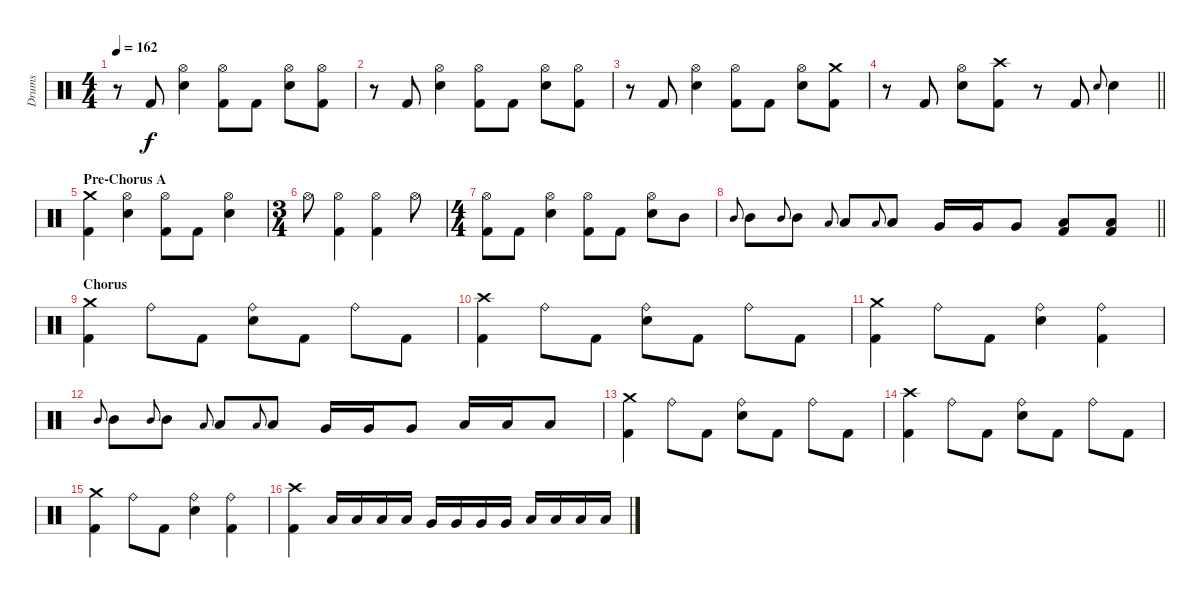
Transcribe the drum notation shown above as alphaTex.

\track ("Drums" "Drums") {instrument percussion}
\staff {score}
\articulation defaults
\ts (4 4)
\tempo 162
\clef neutral
\ks c
r.8{dy f} "Kick (hit) 2".8 ("Hi-Hat (open)" "Snare (hit) 2").4 ("Hi-Hat (open)" "Kick (hit) 2").8 "Kick (hit) 2".8 ("Hi-Hat (open)" "Snare (hit) 2").8 ("Hi-Hat (open)" "Kick (hit) 2").8 |
r.8 "Kick (hit) 2".8 ("Hi-Hat (open)" "Snare (hit) 2").4 ("Hi-Hat (open)" "Kick (hit) 2").8 "Kick (hit) 2".8 ("Hi-Hat (open)" "Snare (hit) 2").8 ("Hi-Hat (open)" "Kick (hit) 2").8 |
r.8 "Kick (hit) 2".8 ("Hi-Hat (open)" "Snare (hit) 2").4 ("Hi-Hat (open)" "Kick (hit) 2").8 "Kick (hit) 2".8 ("Hi-Hat (open)" "Snare (hit) 2").8 ("Crash medium (hit)" "Kick (hit) 2").8 |
\barLineRight lightlight
r.8 "Kick (hit) 2".8 ("Hi-Hat (open)" "Snare (hit) 2").8 ("Crash high (hit)" "Kick (hit) 2").8 r.8 "Kick (hit) 2".8 "Snare (hit) 2".8{gr onbeat} "Snare (hit) 2".4 |
\section ("" "Pre-Chorus A")
("Crash medium (hit)" "Kick (hit) 2").4 ("Hi-Hat (open)" "Snare (hit) 2").4 ("Hi-Hat (open)" "Kick (hit) 2").8 "Kick (hit) 2".8 ("Hi-Hat (open)" "Snare (hit) 2").4 |
\ts (3 4)
"Hi-Hat (open)".8 ("Hi-Hat (open)" "Kick (hit) 2").4 ("Hi-Hat (open)" "Kick (hit) 2").4 "Hi-Hat (open)".8 |
\ts (4 4)
("Hi-Hat (open)" "Kick (hit) 2").8 "Kick (hit) 2".8 ("Hi-Hat (open)" "Snare (hit) 2").4 ("Hi-Hat (open)" "Kick (hit) 2").8 "Kick (hit) 2".8 ("Hi-Hat (open)" "Snare (hit) 2").8 "Mid Tom (hit)".8 |
\barLineRight lightlight "Mid Tom (hit)".8{gr onbeat} "Mid Tom (hit)".8 "Mid Tom (hit)".8{gr onbeat} "Mid Tom (hit)".8 "Low Tom (hit)".8{gr onbeat} "Low Tom (hit)".8 "Low Tom (hit)".8{gr onbeat} "Low Tom (hit)".8 "Very Low Tom (hit)".16 "Very Low Tom (hit)".16 "Very Low Tom (hit)".8
("Low Floor Tom (hit)" "Kick (hit) 2").8 ("Low Floor Tom (hit)" "Kick (hit) 2").8 |
\section ("" "Chorus")
("Crash medium (hit)" "Kick (hit) 2").4 "Ride (bell)".8 "Kick (hit) 2".8 ("Ride (bell)" "Snare (hit) 2").8 "Kick (hit) 2".8 "Ride (bell)".8 "Kick (hit) 2".8 |
("Crash high (hit)" "Kick (hit) 2").4 "Ride (bell)".8 "Kick (hit) 2".8 ("Ride (bell)" "Snare (hit) 2").8 "Kick (hit) 2".8 "Ride (bell)".8 "Kick (hit) 2".8 |
("Crash medium (hit)" "Kick (hit) 2").4 "Ride (bell)".8 "Kick (hit) 2".8 ("Ride (bell)" "Snare (hit) 2").4 ("Ride (bell)" "Kick (hit) 2").4 |
"Mid Tom (hit)".8{gr onbeat} "Mid Tom (hit)".8 "Mid Tom (hit)".8{gr onbeat} "Mid Tom (hit)".8 "Low Tom (hit)".8{gr onbeat} "Low Tom (hit)".8 "Low Tom (hit)".8{gr onbeat} "Low Tom (hit)".8 "Very Low Tom (hit)".16 "Very Low Tom (hit)".16 "Very Low Tom (hit)".8 "Low Floor Tom (hit)".16 "Low Floor Tom (hit)".16 "Low Floor Tom (hit)".8 |
("Crash medium (hit)" "Kick (hit) 2").4 "Ride (bell)".8 "Kick (hit) 2".8 ("Ride (bell)" "Snare (hit) 2").8 "Kick (hit) 2".8 "Ride (bell)".8 "Kick (hit) 2".8 |
("Crash high (hit)" "Kick (hit) 2").4 "Ride (bell)".8 "Kick (hit) 2".8 ("Ride (bell)" "Snare (hit) 2").8 "Kick (hit) 2".8 "Ride (bell)".8 "Kick (hit) 2".8 |
("Crash medium (hit)" "Kick (hit) 2").4 "Ride (bell)".8 "Kick (hit) 2".8 ("Ride (bell)" "Snare (hit) 2").4 ("Ride (bell)" "Kick (hit) 2").4 |
("Crash high (hit)" "Kick (hit) 2").4 "Low Tom (hit)".16 "Low Tom (hit)".16 "Low Tom (hit)".16 "Low Tom (hit)".16 "Very Low Tom (hit)".16 "Very Low Tom (hit)".16 "Very Low Tom (hit)".16 "Very Low Tom (hit)".16 "Low Floor Tom (hit)".16 "Low Floor Tom (hit)".16 "Low Floor Tom (hit)".16 "Low Floor Tom (hit)".16
